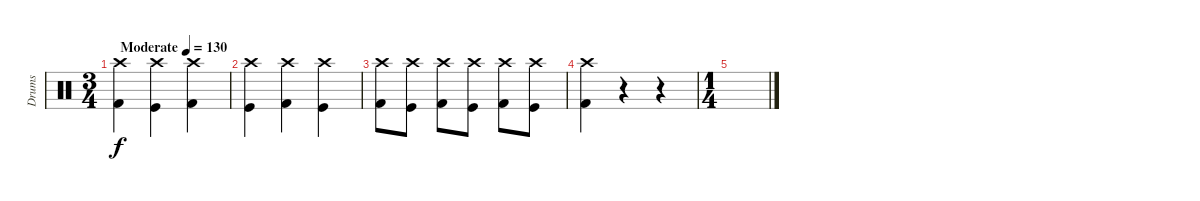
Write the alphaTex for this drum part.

\track ("Drums" "Drums") {instrument percussion}
\staff {score}
\articulation defaults
\ts (3 4)
\tempo (130 "Moderate")
\clef neutral
\ks c
("Crash high (hit)" "Kick (hit) 2").4{dy f} ("Crash high (hit)" "Kick (hit)").4 ("Crash high (hit)" "Kick (hit) 2").4 |
("Crash high (hit)" "Kick (hit)").4 ("Crash high (hit)" "Kick (hit) 2").4 ("Crash high (hit)" "Kick (hit)").4 |
("Crash high (hit)" "Kick (hit) 2").8 ("Crash high (hit)" "Kick (hit)").8 ("Crash high (hit)" "Kick (hit) 2").8 ("Crash high (hit)" "Kick (hit)").8 ("Crash high (hit)" "Kick (hit) 2").8 ("Crash high (hit)" "Kick (hit)").8 |
("Crash high (hit)" "Kick (hit) 2").4 r.4 r.4 |
\ts (1 4)
